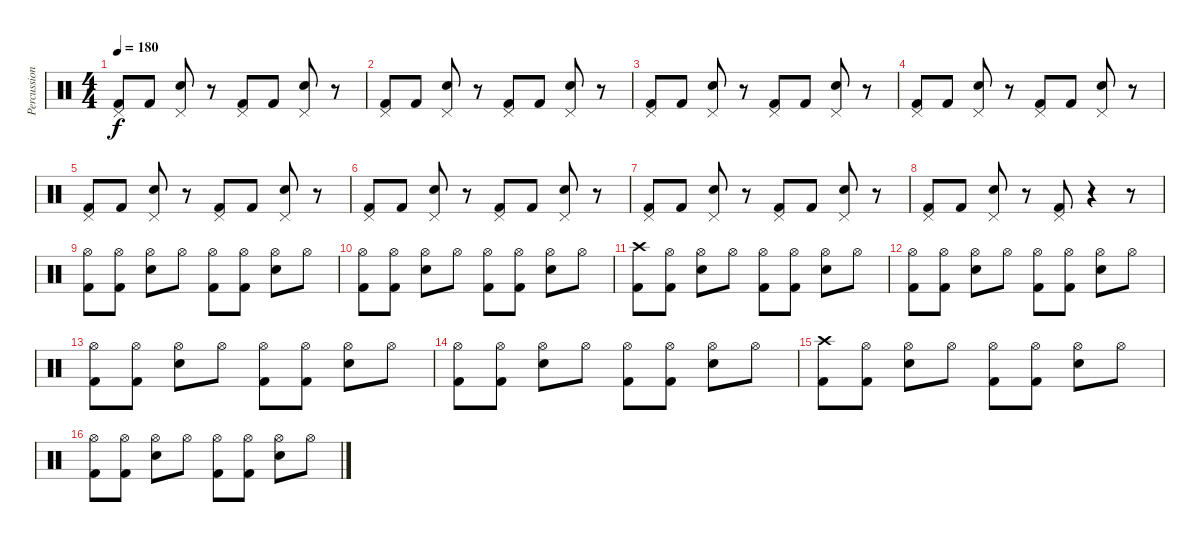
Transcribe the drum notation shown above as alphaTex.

\track ("Percussion" "Percussion") {instrument percussion}
\staff {score}
\articulation defaults
\ts (4 4)
\tempo 180
\clef neutral
\ks c
("Pedal Hi-Hat (hit)" "Kick (hit) 2").8{dy f} "Kick (hit) 2".8 ("Pedal Hi-Hat (hit)" "Electric Snare (hit)").8 r.8 ("Pedal Hi-Hat (hit)" "Kick (hit) 2").8 "Kick (hit) 2".8 ("Pedal Hi-Hat (hit)" "Electric Snare (hit)").8 r.8 |
("Pedal Hi-Hat (hit)" "Kick (hit) 2").8 "Kick (hit) 2".8 ("Pedal Hi-Hat (hit)" "Electric Snare (hit)").8 r.8 ("Pedal Hi-Hat (hit)" "Kick (hit) 2").8 "Kick (hit) 2".8 ("Pedal Hi-Hat (hit)" "Electric Snare (hit)").8 r.8 |
("Pedal Hi-Hat (hit)" "Kick (hit) 2").8 "Kick (hit) 2".8 ("Pedal Hi-Hat (hit)" "Electric Snare (hit)").8 r.8 ("Pedal Hi-Hat (hit)" "Kick (hit) 2").8 "Kick (hit) 2".8 ("Pedal Hi-Hat (hit)" "Electric Snare (hit)").8 r.8 |
("Pedal Hi-Hat (hit)" "Kick (hit) 2").8 "Kick (hit) 2".8 ("Pedal Hi-Hat (hit)" "Electric Snare (hit)").8 r.8 ("Pedal Hi-Hat (hit)" "Kick (hit) 2").8 "Kick (hit) 2".8 ("Pedal Hi-Hat (hit)" "Electric Snare (hit)").8 r.8 |
("Pedal Hi-Hat (hit)" "Kick (hit) 2").8 "Kick (hit) 2".8 ("Pedal Hi-Hat (hit)" "Electric Snare (hit)").8 r.8 ("Pedal Hi-Hat (hit)" "Kick (hit) 2").8 "Kick (hit) 2".8 ("Pedal Hi-Hat (hit)" "Electric Snare (hit)").8 r.8 |
("Pedal Hi-Hat (hit)" "Kick (hit) 2").8 "Kick (hit) 2".8 ("Pedal Hi-Hat (hit)" "Electric Snare (hit)").8 r.8 ("Pedal Hi-Hat (hit)" "Kick (hit) 2").8 "Kick (hit) 2".8 ("Pedal Hi-Hat (hit)" "Electric Snare (hit)").8 r.8 |
("Pedal Hi-Hat (hit)" "Kick (hit) 2").8 "Kick (hit) 2".8 ("Pedal Hi-Hat (hit)" "Electric Snare (hit)").8 r.8 ("Pedal Hi-Hat (hit)" "Kick (hit) 2").8 "Kick (hit) 2".8 ("Pedal Hi-Hat (hit)" "Electric Snare (hit)").8 r.8 |
("Pedal Hi-Hat (hit)" "Kick (hit) 2").8 "Kick (hit) 2".8 ("Pedal Hi-Hat (hit)" "Electric Snare (hit)").8 r.8 ("Pedal Hi-Hat (hit)" "Kick (hit) 2").8 r.4 r.8 |
("Hi-Hat (open)" "Kick (hit) 2").8 ("Hi-Hat (open)" "Kick (hit) 2").8 ("Hi-Hat (open)" "Electric Snare (hit)").8 "Hi-Hat (open)".8 ("Hi-Hat (open)" "Kick (hit) 2").8 ("Hi-Hat (open)" "Kick (hit) 2").8 ("Hi-Hat (open)" "Electric Snare (hit)").8 "Hi-Hat (open)".8 |
("Hi-Hat (open)" "Kick (hit) 2").8 ("Hi-Hat (open)" "Kick (hit) 2").8 ("Hi-Hat (open)" "Electric Snare (hit)").8 "Hi-Hat (open)".8 ("Hi-Hat (open)" "Kick (hit) 2").8 ("Hi-Hat (open)" "Kick (hit) 2").8 ("Hi-Hat (open)" "Electric Snare (hit)").8 "Hi-Hat (open)".8 |
("Crash high (hit)" "Kick (hit) 2").8 ("Hi-Hat (open)" "Kick (hit) 2").8 ("Hi-Hat (open)" "Electric Snare (hit)").8 "Hi-Hat (open)".8 ("Hi-Hat (open)" "Kick (hit) 2").8 ("Hi-Hat (open)" "Kick (hit) 2").8 ("Hi-Hat (open)" "Electric Snare (hit)").8 "Hi-Hat (open)".8 |
("Hi-Hat (open)" "Kick (hit) 2").8 ("Hi-Hat (open)" "Kick (hit) 2").8 ("Hi-Hat (open)" "Electric Snare (hit)").8 "Hi-Hat (open)".8 ("Hi-Hat (open)" "Kick (hit) 2").8 ("Hi-Hat (open)" "Kick (hit) 2").8 ("Hi-Hat (open)" "Electric Snare (hit)").8 "Hi-Hat (open)".8 |
("Hi-Hat (open)" "Kick (hit) 2").8 ("Hi-Hat (open)" "Kick (hit) 2").8 ("Hi-Hat (open)" "Electric Snare (hit)").8 "Hi-Hat (open)".8 ("Hi-Hat (open)" "Kick (hit) 2").8 ("Hi-Hat (open)" "Kick (hit) 2").8 ("Hi-Hat (open)" "Electric Snare (hit)").8 "Hi-Hat (open)".8 |
("Hi-Hat (open)" "Kick (hit) 2").8 ("Hi-Hat (open)" "Kick (hit) 2").8 ("Hi-Hat (open)" "Electric Snare (hit)").8 "Hi-Hat (open)".8 ("Hi-Hat (open)" "Kick (hit) 2").8 ("Hi-Hat (open)" "Kick (hit) 2").8 ("Hi-Hat (open)" "Electric Snare (hit)").8 "Hi-Hat (open)".8 |
("Crash high (hit)" "Kick (hit) 2").8 ("Hi-Hat (open)" "Kick (hit) 2").8 ("Hi-Hat (open)" "Electric Snare (hit)").8 "Hi-Hat (open)".8 ("Hi-Hat (open)" "Kick (hit) 2").8 ("Hi-Hat (open)" "Kick (hit) 2").8 ("Hi-Hat (open)" "Electric Snare (hit)").8 "Hi-Hat (open)".8 |
("Hi-Hat (open)" "Kick (hit) 2").8 ("Hi-Hat (open)" "Kick (hit) 2").8 ("Hi-Hat (open)" "Electric Snare (hit)").8 "Hi-Hat (open)".8 ("Hi-Hat (open)" "Kick (hit) 2").8 ("Hi-Hat (open)" "Kick (hit) 2").8 ("Hi-Hat (open)" "Electric Snare (hit)").8 "Hi-Hat (open)".8
